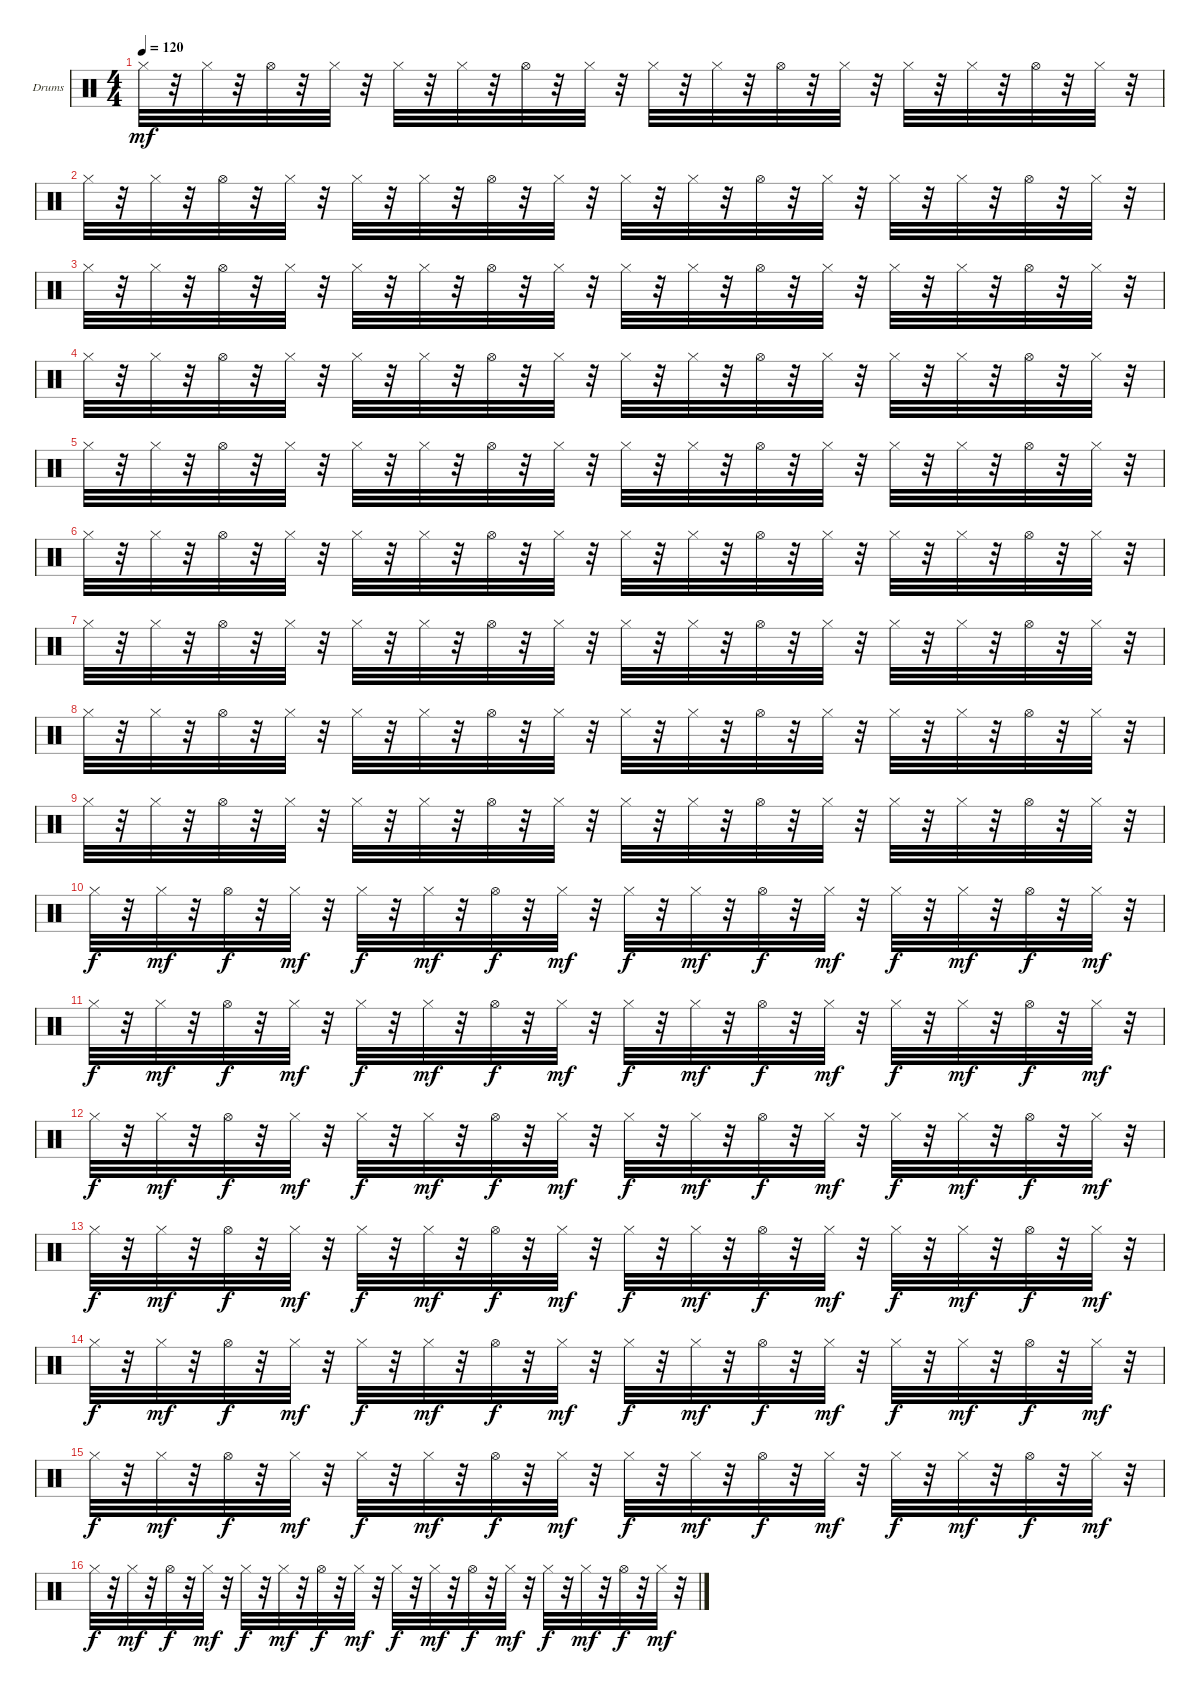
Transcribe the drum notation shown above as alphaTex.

\defaultSystemsLayout 4
\bracketExtendMode nobrackets
\firstSystemTrackNameOrientation horizontal
\otherSystemsTrackNameOrientation horizontal
\track ("Drumkit" "Drums") {instrument percussion}
\staff {score}
\articulation defaults
\ts (4 4)
\tempo 120
\clef neutral
\scale
0.333333
\ks c "Hi-Hat (closed)".32{dy mf}
r.32 "Hi-Hat (closed)".32 r.32 "Hi-Hat (open)".32 r.32 "Hi-Hat (closed)".32 r.32 "Hi-Hat (closed)".32 r.32 "Hi-Hat (closed)".32 r.32 "Hi-Hat (open)".32 r.32 "Hi-Hat (closed)".32 r.32 "Hi-Hat (closed)".32 r.32 "Hi-Hat (closed)".32 r.32 "Hi-Hat (open)".32 r.32 "Hi-Hat (closed)".32 r.32 "Hi-Hat (closed)".32 r.32 "Hi-Hat (closed)".32 r.32 "Hi-Hat (open)".32 r.32 "Hi-Hat (closed)".32 r.32 |
\scale
0.333333 "Hi-Hat (closed)".32 r.32 "Hi-Hat (closed)".32 r.32 "Hi-Hat (open)".32 r.32 "Hi-Hat (closed)".32 r.32 "Hi-Hat (closed)".32 r.32 "Hi-Hat (closed)".32 r.32 "Hi-Hat (open)".32 r.32 "Hi-Hat (closed)".32 r.32 "Hi-Hat (closed)".32 r.32 "Hi-Hat (closed)".32 r.32 "Hi-Hat (open)".32 r.32 "Hi-Hat (closed)".32 r.32 "Hi-Hat (closed)".32 r.32 "Hi-Hat (closed)".32 r.32 "Hi-Hat (open)".32 r.32 "Hi-Hat (closed)".32 r.32 |
\scale
0.333333 "Hi-Hat (closed)".32 r.32 "Hi-Hat (closed)".32 r.32 "Hi-Hat (open)".32 r.32 "Hi-Hat (closed)".32 r.32 "Hi-Hat (closed)".32 r.32 "Hi-Hat (closed)".32 r.32 "Hi-Hat (open)".32 r.32 "Hi-Hat (closed)".32 r.32 "Hi-Hat (closed)".32 r.32 "Hi-Hat (closed)".32 r.32 "Hi-Hat (open)".32 r.32 "Hi-Hat (closed)".32 r.32 "Hi-Hat (closed)".32 r.32 "Hi-Hat (closed)".32 r.32 "Hi-Hat (open)".32 r.32 "Hi-Hat (closed)".32 r.32 |
\scale
0.333333 "Hi-Hat (closed)".32 r.32 "Hi-Hat (closed)".32 r.32 "Hi-Hat (open)".32 r.32 "Hi-Hat (closed)".32 r.32 "Hi-Hat (closed)".32 r.32 "Hi-Hat (closed)".32 r.32 "Hi-Hat (open)".32 r.32 "Hi-Hat (closed)".32 r.32 "Hi-Hat (closed)".32 r.32 "Hi-Hat (closed)".32 r.32 "Hi-Hat (open)".32 r.32 "Hi-Hat (closed)".32 r.32 "Hi-Hat (closed)".32 r.32 "Hi-Hat (closed)".32 r.32 "Hi-Hat (open)".32 r.32 "Hi-Hat (closed)".32 r.32 |
\scale
0.333333 "Hi-Hat (closed)".32 r.32 "Hi-Hat (closed)".32 r.32 "Hi-Hat (open)".32 r.32 "Hi-Hat (closed)".32 r.32 "Hi-Hat (closed)".32 r.32 "Hi-Hat (closed)".32 r.32 "Hi-Hat (open)".32 r.32 "Hi-Hat (closed)".32 r.32 "Hi-Hat (closed)".32 r.32 "Hi-Hat (closed)".32 r.32 "Hi-Hat (open)".32 r.32 "Hi-Hat (closed)".32 r.32 "Hi-Hat (closed)".32 r.32 "Hi-Hat (closed)".32 r.32 "Hi-Hat (open)".32 r.32 "Hi-Hat (closed)".32 r.32 |
\scale
0.333333 "Hi-Hat (closed)".32 r.32 "Hi-Hat (closed)".32 r.32 "Hi-Hat (open)".32 r.32 "Hi-Hat (closed)".32 r.32 "Hi-Hat (closed)".32 r.32 "Hi-Hat (closed)".32 r.32 "Hi-Hat (open)".32 r.32 "Hi-Hat (closed)".32 r.32 "Hi-Hat (closed)".32 r.32 "Hi-Hat (closed)".32 r.32 "Hi-Hat (open)".32 r.32 "Hi-Hat (closed)".32 r.32 "Hi-Hat (closed)".32 r.32 "Hi-Hat (closed)".32 r.32 "Hi-Hat (open)".32 r.32 "Hi-Hat (closed)".32 r.32 |
\scale
0.333333 "Hi-Hat (closed)".32 r.32 "Hi-Hat (closed)".32 r.32 "Hi-Hat (open)".32 r.32 "Hi-Hat (closed)".32 r.32 "Hi-Hat (closed)".32 r.32 "Hi-Hat (closed)".32 r.32 "Hi-Hat (open)".32 r.32 "Hi-Hat (closed)".32 r.32 "Hi-Hat (closed)".32 r.32 "Hi-Hat (closed)".32 r.32 "Hi-Hat (open)".32 r.32 "Hi-Hat (closed)".32 r.32 "Hi-Hat (closed)".32 r.32 "Hi-Hat (closed)".32 r.32 "Hi-Hat (open)".32 r.32 "Hi-Hat (closed)".32 r.32 |
\scale
0.333333 "Hi-Hat (closed)".32 r.32 "Hi-Hat (closed)".32 r.32 "Hi-Hat (open)".32 r.32 "Hi-Hat (closed)".32 r.32 "Hi-Hat (closed)".32 r.32 "Hi-Hat (closed)".32 r.32 "Hi-Hat (open)".32 r.32 "Hi-Hat (closed)".32 r.32 "Hi-Hat (closed)".32 r.32 "Hi-Hat (closed)".32 r.32 "Hi-Hat (open)".32 r.32 "Hi-Hat (closed)".32 r.32 "Hi-Hat (closed)".32 r.32 "Hi-Hat (closed)".32 r.32 "Hi-Hat (open)".32 r.32 "Hi-Hat (closed)".32 r.32 |
\scale
0.333333 "Hi-Hat (closed)".32 r.32 "Hi-Hat (closed)".32 r.32 "Hi-Hat (open)".32 r.32 "Hi-Hat (closed)".32 r.32 "Hi-Hat (closed)".32 r.32 "Hi-Hat (closed)".32 r.32 "Hi-Hat (open)".32 r.32 "Hi-Hat (closed)".32 r.32 "Hi-Hat (closed)".32 r.32 "Hi-Hat (closed)".32 r.32 "Hi-Hat (open)".32 r.32 "Hi-Hat (closed)".32 r.32 "Hi-Hat (closed)".32 r.32 "Hi-Hat (closed)".32 r.32 "Hi-Hat (open)".32 r.32 "Hi-Hat (closed)".32 r.32 |
"Hi-Hat (closed)".32{dy f} r.32 "Hi-Hat (closed)".32{dy mf} r.32 "Hi-Hat (open)".32{dy f} r.32 "Hi-Hat (closed)".32{dy mf} r.32 "Hi-Hat (closed)".32{dy f} r.32 "Hi-Hat (closed)".32{dy mf} r.32 "Hi-Hat (open)".32{dy f} r.32 "Hi-Hat (closed)".32{dy mf} r.32 "Hi-Hat (closed)".32{dy f} r.32 "Hi-Hat (closed)".32{dy mf} r.32 "Hi-Hat (open)".32{dy f} r.32 "Hi-Hat (closed)".32{dy mf} r.32 "Hi-Hat (closed)".32{dy f} r.32 "Hi-Hat (closed)".32{dy mf} r.32 "Hi-Hat (open)".32{dy f} r.32 "Hi-Hat (closed)".32{dy mf} r.32 |
"Hi-Hat (closed)".32{dy f} r.32 "Hi-Hat (closed)".32{dy mf} r.32 "Hi-Hat (open)".32{dy f} r.32 "Hi-Hat (closed)".32{dy mf} r.32 "Hi-Hat (closed)".32{dy f} r.32 "Hi-Hat (closed)".32{dy mf} r.32 "Hi-Hat (open)".32{dy f} r.32 "Hi-Hat (closed)".32{dy mf} r.32 "Hi-Hat (closed)".32{dy f} r.32 "Hi-Hat (closed)".32{dy mf} r.32 "Hi-Hat (open)".32{dy f} r.32 "Hi-Hat (closed)".32{dy mf} r.32 "Hi-Hat (closed)".32{dy f} r.32 "Hi-Hat (closed)".32{dy mf} r.32 "Hi-Hat (open)".32{dy f} r.32 "Hi-Hat (closed)".32{dy mf} r.32 |
"Hi-Hat (closed)".32{dy f} r.32 "Hi-Hat (closed)".32{dy mf} r.32 "Hi-Hat (open)".32{dy f} r.32 "Hi-Hat (closed)".32{dy mf} r.32 "Hi-Hat (closed)".32{dy f} r.32 "Hi-Hat (closed)".32{dy mf} r.32 "Hi-Hat (open)".32{dy f} r.32 "Hi-Hat (closed)".32{dy mf} r.32 "Hi-Hat (closed)".32{dy f} r.32 "Hi-Hat (closed)".32{dy mf} r.32 "Hi-Hat (open)".32{dy f} r.32 "Hi-Hat (closed)".32{dy mf} r.32 "Hi-Hat (closed)".32{dy f} r.32 "Hi-Hat (closed)".32{dy mf} r.32 "Hi-Hat (open)".32{dy f} r.32 "Hi-Hat (closed)".32{dy mf} r.32 |
"Hi-Hat (closed)".32{dy f} r.32 "Hi-Hat (closed)".32{dy mf} r.32 "Hi-Hat (open)".32{dy f} r.32 "Hi-Hat (closed)".32{dy mf} r.32 "Hi-Hat (closed)".32{dy f} r.32 "Hi-Hat (closed)".32{dy mf} r.32 "Hi-Hat (open)".32{dy f} r.32 "Hi-Hat (closed)".32{dy mf} r.32 "Hi-Hat (closed)".32{dy f} r.32 "Hi-Hat (closed)".32{dy mf} r.32 "Hi-Hat (open)".32{dy f} r.32 "Hi-Hat (closed)".32{dy mf} r.32 "Hi-Hat (closed)".32{dy f} r.32 "Hi-Hat (closed)".32{dy mf} r.32 "Hi-Hat (open)".32{dy f} r.32 "Hi-Hat (closed)".32{dy mf} r.32 |
"Hi-Hat (closed)".32{dy f} r.32 "Hi-Hat (closed)".32{dy mf} r.32 "Hi-Hat (open)".32{dy f} r.32 "Hi-Hat (closed)".32{dy mf} r.32 "Hi-Hat (closed)".32{dy f} r.32 "Hi-Hat (closed)".32{dy mf} r.32 "Hi-Hat (open)".32{dy f} r.32 "Hi-Hat (closed)".32{dy mf} r.32 "Hi-Hat (closed)".32{dy f} r.32 "Hi-Hat (closed)".32{dy mf} r.32 "Hi-Hat (open)".32{dy f} r.32 "Hi-Hat (closed)".32{dy mf} r.32 "Hi-Hat (closed)".32{dy f} r.32 "Hi-Hat (closed)".32{dy mf} r.32 "Hi-Hat (open)".32{dy f} r.32 "Hi-Hat (closed)".32{dy mf} r.32 |
"Hi-Hat (closed)".32{dy f} r.32 "Hi-Hat (closed)".32{dy mf} r.32 "Hi-Hat (open)".32{dy f} r.32 "Hi-Hat (closed)".32{dy mf} r.32 "Hi-Hat (closed)".32{dy f} r.32 "Hi-Hat (closed)".32{dy mf} r.32 "Hi-Hat (open)".32{dy f} r.32 "Hi-Hat (closed)".32{dy mf} r.32 "Hi-Hat (closed)".32{dy f} r.32 "Hi-Hat (closed)".32{dy mf} r.32 "Hi-Hat (open)".32{dy f} r.32 "Hi-Hat (closed)".32{dy mf} r.32 "Hi-Hat (closed)".32{dy f} r.32 "Hi-Hat (closed)".32{dy mf} r.32 "Hi-Hat (open)".32{dy f} r.32 "Hi-Hat (closed)".32{dy mf} r.32 |
"Hi-Hat (closed)".32{dy f} r.32 "Hi-Hat (closed)".32{dy mf} r.32 "Hi-Hat (open)".32{dy f} r.32 "Hi-Hat (closed)".32{dy mf} r.32 "Hi-Hat (closed)".32{dy f} r.32 "Hi-Hat (closed)".32{dy mf} r.32 "Hi-Hat (open)".32{dy f} r.32 "Hi-Hat (closed)".32{dy mf} r.32 "Hi-Hat (closed)".32{dy f} r.32 "Hi-Hat (closed)".32{dy mf} r.32 "Hi-Hat (open)".32{dy f} r.32 "Hi-Hat (closed)".32{dy mf} r.32 "Hi-Hat (closed)".32{dy f} r.32 "Hi-Hat (closed)".32{dy mf} r.32 "Hi-Hat (open)".32{dy f} r.32 "Hi-Hat (closed)".32{dy mf} r.32
